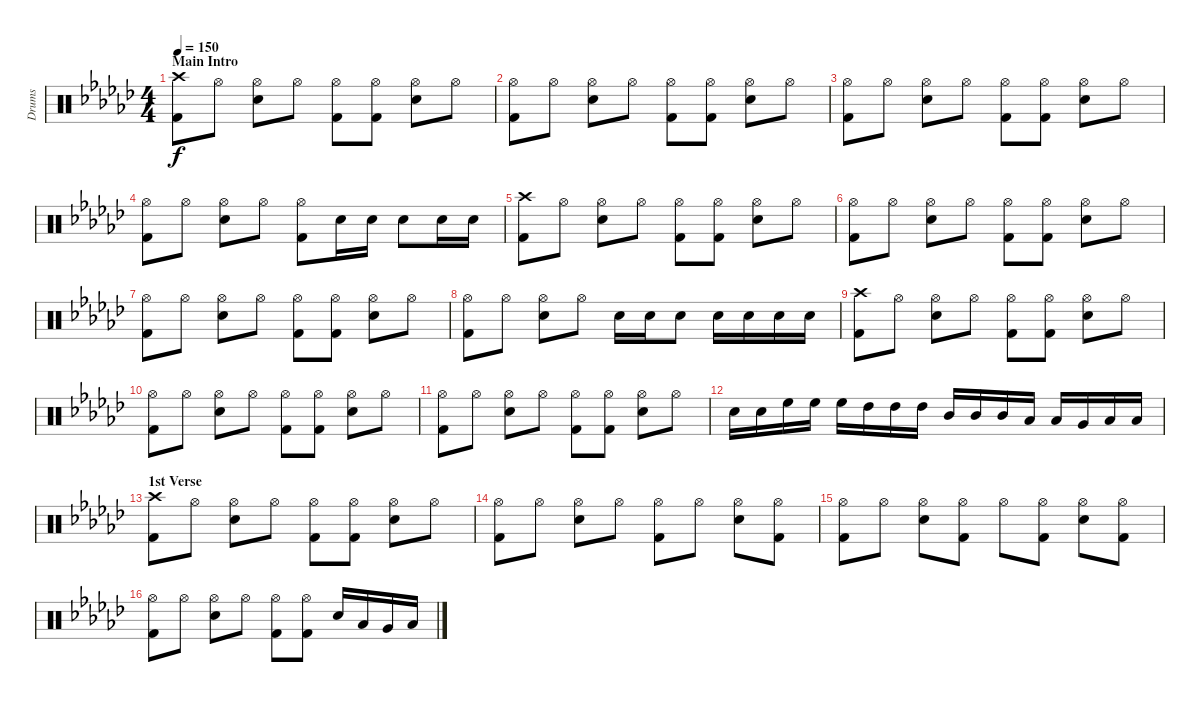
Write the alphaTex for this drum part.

\track ("Drums" "Drums") {instrument percussion}
\staff {score}
\articulation defaults
\ts (4 4)
\section ("" "Main Intro")
\tempo 150
\clef neutral
\ks gb
("Crash high (hit)" "Kick (hit) 2").8{dy f} "Hi-Hat (open)".8 ("Hi-Hat (open)" "Electric Snare (hit)").8 "Hi-Hat (open)".8 ("Hi-Hat (open)" "Kick (hit) 2").8 ("Hi-Hat (open)" "Kick (hit) 2").8 ("Hi-Hat (open)" "Electric Snare (hit)").8 "Hi-Hat (open)".8 |
("Hi-Hat (open)" "Kick (hit) 2").8 "Hi-Hat (open)".8 ("Hi-Hat (open)" "Electric Snare (hit)").8 "Hi-Hat (open)".8 ("Hi-Hat (open)" "Kick (hit) 2").8 ("Hi-Hat (open)" "Kick (hit) 2").8 ("Hi-Hat (open)" "Electric Snare (hit)").8 "Hi-Hat (open)".8 |
("Hi-Hat (open)" "Kick (hit) 2").8 "Hi-Hat (open)".8 ("Hi-Hat (open)" "Electric Snare (hit)").8 "Hi-Hat (open)".8 ("Hi-Hat (open)" "Kick (hit) 2").8 ("Hi-Hat (open)" "Kick (hit) 2").8 ("Hi-Hat (open)" "Electric Snare (hit)").8 "Hi-Hat (open)".8 |
("Hi-Hat (open)" "Kick (hit) 2").8 "Hi-Hat (open)".8 ("Hi-Hat (open)" "Electric Snare (hit)").8 "Hi-Hat (open)".8 ("Hi-Hat (open)" "Kick (hit) 2").8 "Electric Snare (hit)".16 "Electric Snare (hit)".16 "Electric Snare (hit)".8 "Electric Snare (hit)".16 "Electric Snare (hit)".16 |
("Crash high (hit)" "Kick (hit) 2").8 "Hi-Hat (open)".8 ("Hi-Hat (open)" "Electric Snare (hit)").8 "Hi-Hat (open)".8 ("Hi-Hat (open)" "Kick (hit) 2").8 ("Hi-Hat (open)" "Kick (hit) 2").8 ("Hi-Hat (open)" "Electric Snare (hit)").8 "Hi-Hat (open)".8 |
("Hi-Hat (open)" "Kick (hit) 2").8 "Hi-Hat (open)".8 ("Hi-Hat (open)" "Electric Snare (hit)").8 "Hi-Hat (open)".8 ("Hi-Hat (open)" "Kick (hit) 2").8 ("Hi-Hat (open)" "Kick (hit) 2").8 ("Hi-Hat (open)" "Electric Snare (hit)").8 "Hi-Hat (open)".8 |
("Hi-Hat (open)" "Kick (hit) 2").8 "Hi-Hat (open)".8 ("Hi-Hat (open)" "Electric Snare (hit)").8 "Hi-Hat (open)".8 ("Hi-Hat (open)" "Kick (hit) 2").8 ("Hi-Hat (open)" "Kick (hit) 2").8 ("Hi-Hat (open)" "Electric Snare (hit)").8 "Hi-Hat (open)".8 |
("Hi-Hat (open)" "Kick (hit) 2").8 "Hi-Hat (open)".8 ("Hi-Hat (open)" "Electric Snare (hit)").8 "Hi-Hat (open)".8 "Electric Snare (hit)".16 "Electric Snare (hit)".16 "Electric Snare (hit)".8 "Electric Snare (hit)".16 "Electric Snare (hit)".16 "Electric Snare (hit)".16 "Electric Snare (hit)".16 |
("Crash high (hit)" "Kick (hit) 2").8 "Hi-Hat (open)".8 ("Hi-Hat (open)" "Electric Snare (hit)").8 "Hi-Hat (open)".8 ("Hi-Hat (open)" "Kick (hit) 2").8 ("Hi-Hat (open)" "Kick (hit) 2").8 ("Hi-Hat (open)" "Electric Snare (hit)").8 "Hi-Hat (open)".8 |
("Hi-Hat (open)" "Kick (hit) 2").8 "Hi-Hat (open)".8 ("Hi-Hat (open)" "Electric Snare (hit)").8 "Hi-Hat (open)".8 ("Hi-Hat (open)" "Kick (hit) 2").8 ("Hi-Hat (open)" "Kick (hit) 2").8 ("Hi-Hat (open)" "Electric Snare (hit)").8 "Hi-Hat (open)".8 |
("Hi-Hat (open)" "Kick (hit) 2").8 "Hi-Hat (open)".8 ("Hi-Hat (open)" "Electric Snare (hit)").8 "Hi-Hat (open)".8 ("Hi-Hat (open)" "Kick (hit) 2").8 ("Hi-Hat (open)" "Kick (hit) 2").8 ("Hi-Hat (open)" "Electric Snare (hit)").8 "Hi-Hat (open)".8 |
"Electric Snare (hit)".16 "Electric Snare (hit)".16 "High Floor Tom (hit)".16 "High Floor Tom (hit)".16 "High Floor Tom (hit)".16 "High Tom (hit)".16 "High Tom (hit)".16 "High Tom (hit)".16 "Mid Tom (hit)".16 "Mid Tom (hit)".16 "Mid Tom (hit)".16 "Low Tom (hit)".16 "Low Tom (hit)".16 "Very Low Tom (hit)".16 "Low Floor Tom (hit)".16 "Low Floor Tom (hit)".16 |
\section ("" "1st Verse")
("Crash high (hit)" "Kick (hit) 2").8 "Hi-Hat (open)".8 ("Hi-Hat (open)" "Electric Snare (hit)").8 "Hi-Hat (open)".8 ("Hi-Hat (open)" "Kick (hit) 2").8 ("Hi-Hat (open)" "Kick (hit) 2").8 ("Hi-Hat (open)" "Electric Snare (hit)").8 "Hi-Hat (open)".8 |
("Hi-Hat (open)" "Kick (hit) 2").8 "Hi-Hat (open)".8 ("Hi-Hat (open)" "Electric Snare (hit)").8 "Hi-Hat (open)".8 ("Hi-Hat (open)" "Kick (hit) 2").8 "Hi-Hat (open)".8 ("Hi-Hat (open)" "Electric Snare (hit)").8 ("Hi-Hat (open)" "Kick (hit) 2").8 |
("Hi-Hat (open)" "Kick (hit) 2").8 "Hi-Hat (open)".8 ("Hi-Hat (open)" "Electric Snare (hit)").8 ("Hi-Hat (open)" "Kick (hit) 2").8 "Hi-Hat (open)".8 ("Hi-Hat (open)" "Kick (hit) 2").8 ("Hi-Hat (open)" "Electric Snare (hit)").8 ("Hi-Hat (open)" "Kick (hit) 2").8 |
("Hi-Hat (open)" "Kick (hit) 2").8 "Hi-Hat (open)".8 ("Hi-Hat (open)" "Electric Snare (hit)").8 "Hi-Hat (open)".8 ("Hi-Hat (open)" "Kick (hit) 2").8 ("Hi-Hat (open)" "Kick (hit) 2").8 "Electric Snare (hit)".16 "Low Tom (hit)".16 "Very Low Tom (hit)".16 "Low Floor Tom (hit)".16
